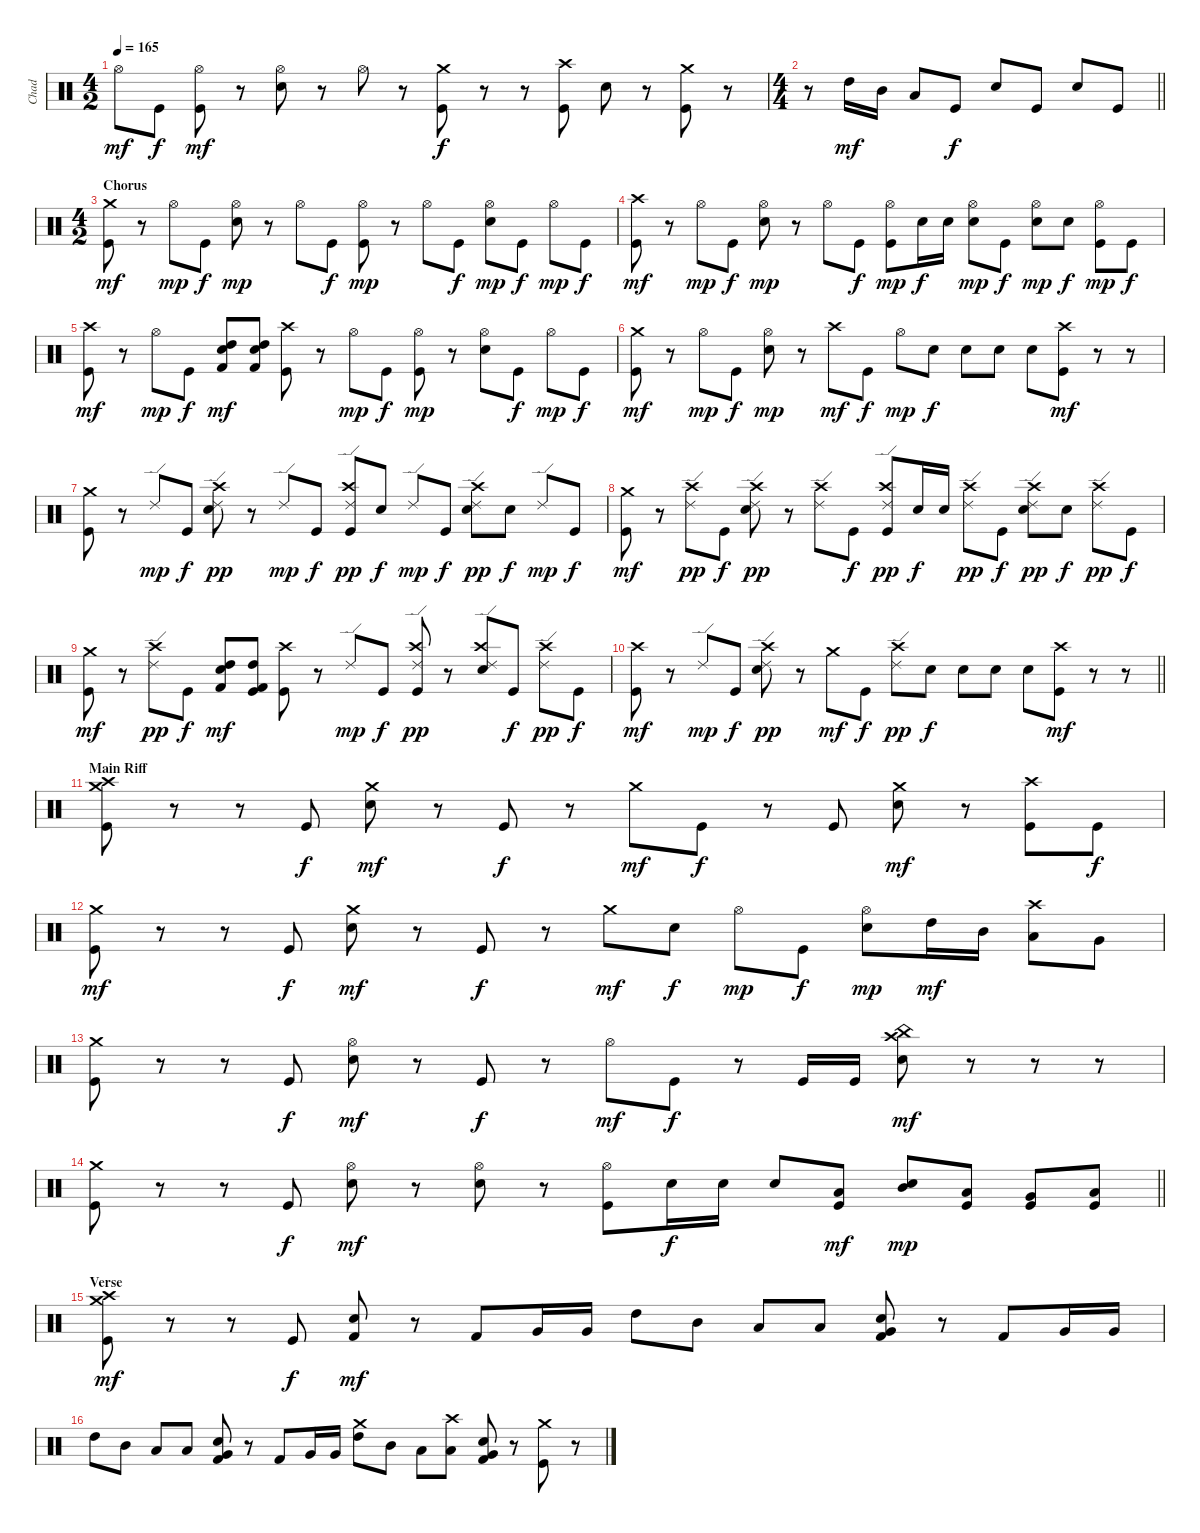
\track ("Chad" "Chad") {instrument percussion}
\staff {score}
\articulation defaults
\ts (4 2)
\tempo 165
\clef neutral
\ks c "Hi-Hat (open)".8{dy mf} "Kick (hit)".8{dy f}
("Kick (hit)" "Hi-Hat (open)").8{dy mf} r.8 ("Snare (hit) 2" "Hi-Hat (open)").8 r.8 "Hi-Hat (open)".8 r.8 ("Kick (hit)" "Crash medium (hit)").8{dy f} r.8 r.8 ("Kick (hit)" "Crash high (hit)").8 "Snare (hit) 2".8 r.8 ("Kick (hit)" "Crash medium (hit)").8 r.8 |
\ts (4 4)
\barLineRight lightlight
r.8 "High Tom (hit)".16{dy mf} "Mid Tom (hit)".16 "Low Tom (hit)".8 "Kick (hit)".8{dy f} "Snare (hit) 2".8 "Kick (hit)".8 "Snare (hit) 2".8 "Kick (hit)".8 |
\ts (4 2)
\section ("" "Chorus")
("Kick (hit)" "Crash medium (hit)").8{dy mf} r.8 "Hi-Hat (open)".8{dy mp} "Kick (hit)".8{dy f} ("Snare (hit) 2" "Hi-Hat (open)").8{dy mp} r.8 "Hi-Hat (open)".8 "Kick (hit)".8{dy f} ("Kick (hit)" "Hi-Hat (open)").8{dy mp} r.8 "Hi-Hat (open)".8 "Kick (hit)".8{dy f} ("Snare (hit) 2" "Hi-Hat (open)").8{dy mp} "Kick (hit)".8{dy f} "Hi-Hat (open)".8{dy mp} "Kick (hit)".8{dy f} |
("Kick (hit)" "Crash high (hit)").8{dy mf} r.8 "Hi-Hat (open)".8{dy mp} "Kick (hit)".8{dy f} ("Snare (hit) 2" "Hi-Hat (open)").8{dy mp} r.8 "Hi-Hat (open)".8 "Kick (hit)".8{dy f} ("Kick (hit)" "Hi-Hat (open)").8{dy mp} "Snare (hit) 2".16{dy f} "Snare (hit) 2".16 ("Snare (hit) 2" "Hi-Hat (open)").8{dy mp} "Kick (hit)".8{dy f} ("Snare (hit) 2" "Hi-Hat (open)").8{dy mp} "Snare (hit) 2".8{dy f} ("Kick (hit)" "Hi-Hat (open)").8{dy mp} "Kick (hit)".8{dy f} |
("Kick (hit)" "Crash high (hit)").8{dy mf} r.8 "Hi-Hat (open)".8{dy mp} "Kick (hit)".8{dy f} ("Snare (hit) 2" "Kick (hit) 2" "High Tom (hit)").8{dy mf} ("Snare (hit) 2" "Kick (hit) 2" "High Tom (hit)").8 ("Kick (hit)" "Crash high (hit)").8 r.8 "Hi-Hat (open)".8{dy mp} "Kick (hit)".8{dy f} ("Kick (hit)" "Hi-Hat (open)").8{dy mp} r.8 ("Snare (hit) 2" "Hi-Hat (open)").8 "Kick (hit)".8{dy f} "Hi-Hat (open)".8{dy mp} "Kick (hit)".8{dy f} |
("Kick (hit)" "Crash medium (hit)").8{dy mf} r.8 "Hi-Hat (open)".8{dy mp} "Kick (hit)".8{dy f} ("Snare (hit) 2" "Hi-Hat (open)").8{dy mp} r.8 "Crash high (hit)".8{dy mf} "Kick (hit)".8{dy f} "Hi-Hat (open)".8{dy mp} "Snare (hit) 2".8{dy f} "Snare (hit) 2".8 "Snare (hit) 2".8 "Snare (hit) 2".8 ("Kick (hit)" "Crash high (hit)").8{dy mf} r.8 r.8 |
("Kick (hit)" "Crash medium (hit)").8 r.8 "Ride (edge) 2".8{dy mp} "Kick (hit)".8{dy f} ("Snare (hit) 2" "Ride (edge) 2" "Crash high (hit)").8{dy pp} r.8 "Ride (edge) 2".8{dy mp} "Kick (hit)".8{dy f} ("Kick (hit)" "Ride (edge) 2" "Crash high (hit)").8{dy pp} "Snare (hit) 2".8{dy f} "Ride (edge) 2".8{dy mp} "Kick (hit)".8{dy f} ("Snare (hit) 2" "Ride (edge) 2" "Crash high (hit)").8{dy pp} "Snare (hit) 2".8{dy f} "Ride (edge) 2".8{dy mp} "Kick (hit)".8{dy f} |
("Kick (hit)" "Crash medium (hit)").8{dy mf} r.8 ("Ride (edge) 2" "Crash high (hit)").8{dy pp} "Kick (hit)".8{dy f} ("Snare (hit) 2" "Ride (edge) 2" "Crash high (hit)").8{dy pp} r.8 ("Ride (edge) 2" "Crash high (hit)").8 "Kick (hit)".8{dy f} ("Kick (hit)" "Ride (edge) 2" "Crash high (hit)").8{dy pp} "Snare (hit) 2".16{dy f} "Snare (hit) 2".16 ("Ride (edge) 2" "Crash high (hit)").8{dy pp} "Kick (hit)".8{dy f} ("Snare (hit) 2" "Ride (edge) 2" "Crash high (hit)").8{dy pp} "Snare (hit) 2".8{dy f} ("Ride (edge) 2" "Crash high (hit)").8{dy pp} "Kick (hit)".8{dy f} |
("Kick (hit)" "Crash medium (hit)").8{dy mf} r.8 ("Ride (edge) 2" "Crash high (hit)").8{dy pp} "Kick (hit)".8{dy f} ("Snare (hit) 2" "High Tom (hit)" "Kick (hit) 2").8{dy mf} ("Kick (hit)" "High Tom (hit)" "Kick (hit) 2").8 ("Kick (hit)" "Crash high (hit)").8 r.8 "Ride (edge) 2".8{dy mp} "Kick (hit)".8{dy f} ("Kick (hit)" "Ride (edge) 2" "Crash high (hit)").8{dy pp} r.8 ("Snare (hit) 2" "Ride (edge) 2" "Crash high (hit)").8 "Kick (hit)".8{dy f} ("Ride (edge) 2" "Crash high (hit)").8{dy pp} "Kick (hit)".8{dy f} |
\barLineRight lightlight
("Kick (hit)" "Crash high (hit)").8{dy mf} r.8 "Ride (edge) 2".8{dy mp} "Kick (hit)".8{dy f} ("Snare (hit) 2" "Ride (edge) 2" "Crash high (hit)").8{dy pp} r.8 "Crash medium (hit)".8{dy mf} "Kick (hit)".8{dy f} ("Ride (edge) 2" "Crash high (hit)").8{dy pp} "Snare (hit) 2".8{dy f} "Snare (hit) 2".8 "Snare (hit) 2".8 "Snare (hit) 2".8 ("Kick (hit)" "Crash high (hit)").8{dy mf} r.8 r.8 |
\section ("" "Main Riff")
("Kick (hit)" "Crash medium (hit)" "Crash high (hit)").8 r.8 r.8 "Kick (hit)".8{dy f} ("Snare (hit) 2" "Crash medium (hit)").8{dy mf} r.8 "Kick (hit)".8{dy f} r.8 "Crash medium (hit)".8{dy mf} "Kick (hit)".8{dy f} r.8 "Kick (hit)".8 ("Snare (hit) 2" "Crash medium (hit)").8{dy mf} r.8 ("Kick (hit)" "Crash high (hit)").8 "Kick (hit)".8{dy f} |
("Kick (hit)" "Crash medium (hit)").8{dy mf} r.8 r.8 "Kick (hit)".8{dy f} ("Snare (hit) 2" "Crash medium (hit)").8{dy mf} r.8 "Kick (hit)".8{dy f} r.8 "Crash medium (hit)".8{dy mf} "Snare (hit) 2".8{dy f} "Hi-Hat (open)".8{dy mp} "Kick (hit)".8{dy f} ("Snare (hit) 2" "Hi-Hat (open)").8{dy mp} "High Tom (hit)".16{dy mf} "Mid Tom (hit)".16 ("Low Tom (hit)" "Crash high (hit)").8 "Very Low Tom (hit)".8 |
("Kick (hit)" "Crash medium (hit)").8 r.8 r.8 "Kick (hit)".8{dy f} ("Snare (hit) 2" "Hi-Hat (open)").8{dy mf} r.8 "Kick (hit)".8{dy f} r.8 "Hi-Hat (open)".8{dy mf} "Kick (hit)".8{dy f} r.8 "Kick (hit)".16 "Kick (hit)".16 ("Snare (hit) 2" "China (hit)" "Crash high (hit)").8{dy mf} r.8 r.8 r.8 |
\barLineRight lightlight
("Kick (hit)" "Crash medium (hit)").8 r.8 r.8 "Kick (hit)".8{dy f} ("Snare (hit) 2" "Hi-Hat (open)").8{dy mf} r.8 ("Snare (hit) 2" "Hi-Hat (open)").8 r.8 ("Kick (hit)" "Hi-Hat (open)").8 "Snare (hit) 2".16{dy f} "Snare (hit) 2".16 "Snare (hit) 2".8 ("Kick (hit)" "Low Tom (hit)").8{dy mf} ("Snare (hit) 2" "Mid Tom (hit)").8{dy mp} ("Kick (hit)" "Low Tom (hit)").8 ("Kick (hit)" "Very Low Tom (hit)").8 ("Kick (hit)" "Low Floor Tom (hit)").8 |
\section ("" "Verse")
("Kick (hit)" "Crash medium (hit)" "Crash high (hit)").8{dy mf} r.8 r.8 "Kick (hit)".8{dy f} ("Snare (hit) 2" "Kick (hit) 2").8{dy mf} r.8 "Kick (hit) 2".8 "Very Low Tom (hit)".16 "Very Low Tom (hit)".16 "High Tom (hit)".8 "Mid Tom (hit)".8 "Low Tom (hit)".8 "Low Floor Tom (hit)".8 ("Snare (hit) 2" "Kick (hit) 2" "Very Low Tom (hit)").8 r.8 "Kick (hit) 2".8 "Very Low Tom (hit)".16 "Very Low Tom (hit)".16 |
"High Tom (hit)".8 "Mid Tom (hit)".8 "Low Tom (hit)".8 "Low Floor Tom (hit)".8 ("Snare (hit) 2" "Kick (hit) 2" "Very Low Tom (hit)").8 r.8 "Kick (hit) 2".8 "Very Low Tom (hit)".16 "Very Low Tom (hit)".16 ("High Tom (hit)" "Crash medium (hit)").8 "Mid Tom (hit)".8 "Low Tom (hit)".8 ("Low Floor Tom (hit)" "Crash high (hit)").8 ("Snare (hit) 2" "Kick (hit) 2" "Very Low Tom (hit)").8 r.8 ("Kick (hit)" "Crash medium (hit)").8 r.8
